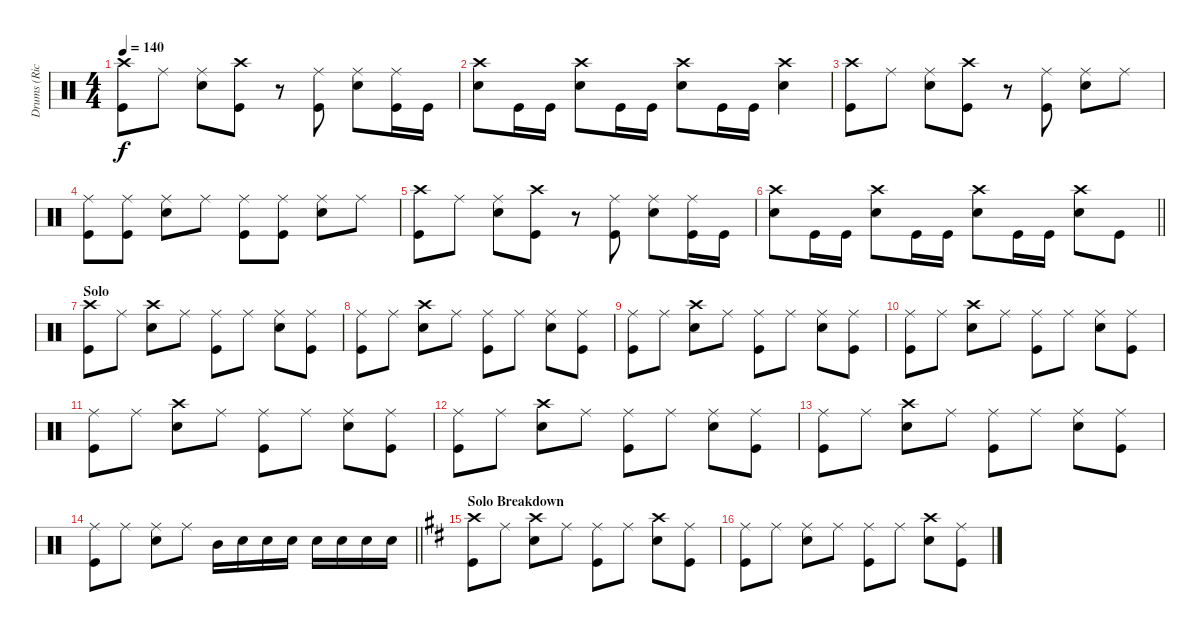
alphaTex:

\track ("Drums (Rick)" "Drums (Ric") {instrument percussion}
\staff {score}
\articulation defaults
\ts (4 4)
\tempo 140
\clef neutral
\ks aminor
("Crash high (hit)" "Kick (hit)").8{dy f} "Ride (middle)".8 ("Ride (middle)" "Snare (hit) 2").8 ("Crash high (hit)" "Kick (hit)").8 r.8 ("Ride (middle)" "Kick (hit)").8 ("Ride (middle)" "Snare (hit) 2").8 ("Ride (middle)" "Kick (hit)").16 "Kick (hit)".16 |
("Crash high (hit)" "Snare (hit) 2").8 "Kick (hit)".16 "Kick (hit)".16 ("Crash high (hit)" "Snare (hit) 2").8 "Kick (hit)".16 "Kick (hit)".16 ("Crash high (hit)" "Snare (hit) 2").8 "Kick (hit)".16 "Kick (hit)".16 ("Crash high (hit)" "Snare (hit) 2").4 |
("Crash high (hit)" "Kick (hit)").8 "Ride (middle)".8 ("Ride (middle)" "Snare (hit) 2").8 ("Crash high (hit)" "Kick (hit)").8 r.8 ("Ride (middle)" "Kick (hit)").8 ("Ride (middle)" "Snare (hit) 2").8 "Ride (middle)".8 |
("Ride (middle)" "Kick (hit)").8 ("Ride (middle)" "Kick (hit)").8 ("Ride (middle)" "Snare (hit) 2").8 "Ride (middle)".8 ("Ride (middle)" "Kick (hit)").8 ("Ride (middle)" "Kick (hit)").8 ("Ride (middle)" "Snare (hit) 2").8 "Ride (middle)".8 |
("Crash high (hit)" "Kick (hit)").8 "Ride (middle)".8 ("Ride (middle)" "Snare (hit) 2").8 ("Crash high (hit)" "Kick (hit)").8 r.8 ("Ride (middle)" "Kick (hit)").8 ("Ride (middle)" "Snare (hit) 2").8 ("Ride (middle)" "Kick (hit)").16 "Kick (hit)".16 |
\barLineRight lightlight
("Crash high (hit)" "Snare (hit) 2").8 "Kick (hit)".16 "Kick (hit)".16 ("Crash high (hit)" "Snare (hit) 2").8 "Kick (hit)".16 "Kick (hit)".16 ("Crash high (hit)" "Snare (hit) 2").8 "Kick (hit)".16 "Kick (hit)".16 ("Crash high (hit)" "Snare (hit) 2").8 "Kick (hit)".8 |
\section ("" "Solo")
("Crash high (hit)" "Kick (hit)").8 "Ride (middle)".8 ("Crash high (hit)" "Snare (hit) 2").8 "Ride (middle)".8 ("Ride (middle)" "Kick (hit)").8 "Ride (middle)".8 ("Ride (middle)" "Snare (hit) 2").8 ("Ride (middle)" "Kick (hit)").8 |
("Ride (middle)" "Kick (hit)").8 "Ride (middle)".8 ("Crash high (hit)" "Snare (hit) 2").8 "Ride (middle)".8 ("Ride (middle)" "Kick (hit)").8 "Ride (middle)".8 ("Ride (middle)" "Snare (hit) 2").8 ("Ride (middle)" "Kick (hit)").8 |
("Ride (middle)" "Kick (hit)").8 "Ride (middle)".8 ("Crash high (hit)" "Snare (hit) 2").8 "Ride (middle)".8 ("Ride (middle)" "Kick (hit)").8 "Ride (middle)".8 ("Ride (middle)" "Snare (hit) 2").8 ("Ride (middle)" "Kick (hit)").8 |
("Ride (middle)" "Kick (hit)").8 "Ride (middle)".8 ("Crash high (hit)" "Snare (hit) 2").8 "Ride (middle)".8 ("Ride (middle)" "Kick (hit)").8 "Ride (middle)".8 ("Ride (middle)" "Snare (hit) 2").8 ("Ride (middle)" "Kick (hit)").8 |
("Ride (middle)" "Kick (hit)").8 "Ride (middle)".8 ("Crash high (hit)" "Snare (hit) 2").8 "Ride (middle)".8 ("Ride (middle)" "Kick (hit)").8 "Ride (middle)".8 ("Ride (middle)" "Snare (hit) 2").8 ("Ride (middle)" "Kick (hit)").8 |
("Ride (middle)" "Kick (hit)").8 "Ride (middle)".8 ("Crash high (hit)" "Snare (hit) 2").8 "Ride (middle)".8 ("Ride (middle)" "Kick (hit)").8 "Ride (middle)".8 ("Ride (middle)" "Snare (hit) 2").8 ("Ride (middle)" "Kick (hit)").8 |
("Ride (middle)" "Kick (hit)").8 "Ride (middle)".8 ("Crash high (hit)" "Snare (hit) 2").8 "Ride (middle)".8 ("Ride (middle)" "Kick (hit)").8 "Ride (middle)".8 ("Ride (middle)" "Snare (hit) 2").8 ("Ride (middle)" "Kick (hit)").8 |
\barLineRight lightlight
("Ride (middle)" "Kick (hit)").8 "Ride (middle)".8 ("Ride (middle)" "Snare (hit) 2").8 "Ride (middle)".8 "Mid Tom (hit)".16 "Snare (hit) 2".16 "Snare (hit) 2".16 "Snare (hit) 2".16 "Snare (hit) 2".16 "Snare (hit) 2".16 "Snare (hit) 2".16 "Snare (hit) 2".16 |
\section ("" "Solo Breakdown")
\ks bminor
("Crash high (hit)" "Kick (hit)").8 "Ride (middle)".8 ("Crash high (hit)" "Snare (hit) 2").8 "Ride (middle)".8 ("Ride (middle)" "Kick (hit)").8 "Ride (middle)".8 ("Crash high (hit)" "Snare (hit) 2").8 ("Ride (middle)" "Kick (hit)").8 |
("Ride (middle)" "Kick (hit)").8 "Ride (middle)".8 ("Ride (middle)" "Snare (hit) 2").8 "Ride (middle)".8 ("Ride (middle)" "Kick (hit)").8 "Ride (middle)".8 ("Crash high (hit)" "Snare (hit) 2").8 ("Ride (middle)" "Kick (hit)").8
